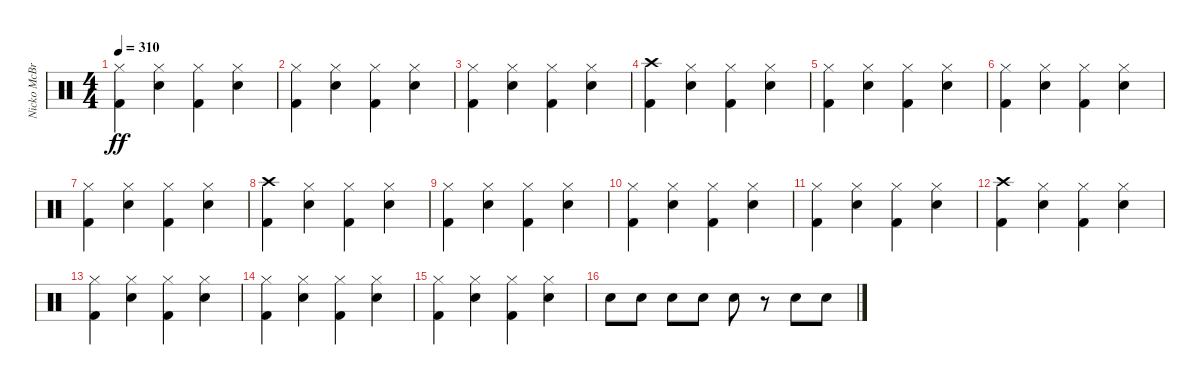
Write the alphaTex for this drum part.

\track ("Nicko McBrain" "Nicko McBr") {instrument percussion}
\staff {score}
\articulation defaults
\ts (4 4)
\tempo 310
\clef neutral
\ks c
("Kick (hit) 2" "Hi-Hat (closed)").4{dy ff} ("Snare (hit) 2" "Hi-Hat (closed)").4 ("Kick (hit) 2" "Hi-Hat (closed)").4 ("Snare (hit) 2" "Hi-Hat (closed)").4 |
("Kick (hit) 2" "Hi-Hat (closed)").4 ("Snare (hit) 2" "Hi-Hat (closed)").4 ("Kick (hit) 2" "Hi-Hat (closed)").4 ("Snare (hit) 2" "Hi-Hat (closed)").4 |
("Kick (hit) 2" "Hi-Hat (closed)").4 ("Snare (hit) 2" "Hi-Hat (closed)").4 ("Kick (hit) 2" "Hi-Hat (closed)").4 ("Snare (hit) 2" "Hi-Hat (closed)").4 |
("Kick (hit) 2" "Crash high (hit)").4 ("Snare (hit) 2" "Hi-Hat (closed)").4 ("Kick (hit) 2" "Hi-Hat (closed)").4 ("Snare (hit) 2" "Hi-Hat (closed)").4 |
("Kick (hit) 2" "Hi-Hat (closed)").4 ("Snare (hit) 2" "Hi-Hat (closed)").4 ("Kick (hit) 2" "Hi-Hat (closed)").4 ("Snare (hit) 2" "Hi-Hat (closed)").4 |
("Kick (hit) 2" "Hi-Hat (closed)").4 ("Snare (hit) 2" "Hi-Hat (closed)").4 ("Kick (hit) 2" "Hi-Hat (closed)").4 ("Snare (hit) 2" "Hi-Hat (closed)").4 |
("Kick (hit) 2" "Hi-Hat (closed)").4 ("Snare (hit) 2" "Hi-Hat (closed)").4 ("Kick (hit) 2" "Hi-Hat (closed)").4 ("Snare (hit) 2" "Hi-Hat (closed)").4 |
("Kick (hit) 2" "Crash high (hit)").4 ("Snare (hit) 2" "Hi-Hat (closed)").4 ("Kick (hit) 2" "Hi-Hat (closed)").4 ("Snare (hit) 2" "Hi-Hat (closed)").4 |
("Kick (hit) 2" "Hi-Hat (closed)").4 ("Snare (hit) 2" "Hi-Hat (closed)").4 ("Kick (hit) 2" "Hi-Hat (closed)").4 ("Snare (hit) 2" "Hi-Hat (closed)").4 |
("Kick (hit) 2" "Hi-Hat (closed)").4 ("Snare (hit) 2" "Hi-Hat (closed)").4 ("Kick (hit) 2" "Hi-Hat (closed)").4 ("Snare (hit) 2" "Hi-Hat (closed)").4 |
("Kick (hit) 2" "Hi-Hat (closed)").4 ("Snare (hit) 2" "Hi-Hat (closed)").4 ("Kick (hit) 2" "Hi-Hat (closed)").4 ("Snare (hit) 2" "Hi-Hat (closed)").4 |
("Kick (hit) 2" "Crash high (hit)").4 ("Snare (hit) 2" "Hi-Hat (closed)").4 ("Kick (hit) 2" "Hi-Hat (closed)").4 ("Snare (hit) 2" "Hi-Hat (closed)").4 |
("Kick (hit) 2" "Hi-Hat (closed)").4 ("Snare (hit) 2" "Hi-Hat (closed)").4 ("Kick (hit) 2" "Hi-Hat (closed)").4 ("Snare (hit) 2" "Hi-Hat (closed)").4 |
("Kick (hit) 2" "Hi-Hat (closed)").4 ("Snare (hit) 2" "Hi-Hat (closed)").4 ("Kick (hit) 2" "Hi-Hat (closed)").4 ("Snare (hit) 2" "Hi-Hat (closed)").4 |
("Kick (hit) 2" "Hi-Hat (closed)").4 ("Snare (hit) 2" "Hi-Hat (closed)").4 ("Kick (hit) 2" "Hi-Hat (closed)").4 ("Snare (hit) 2" "Hi-Hat (closed)").4 |
"Snare (hit) 2".8 "Snare (hit) 2".8 "Snare (hit) 2".8 "Snare (hit) 2".8 "Snare (hit) 2".8 r.8 "Snare (hit) 2".8 "Snare (hit) 2".8
